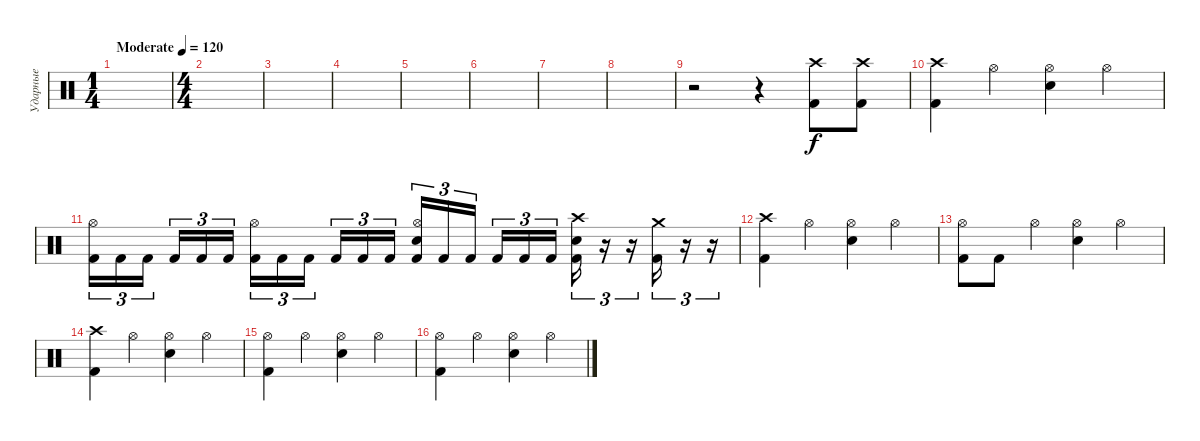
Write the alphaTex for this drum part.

\track ("Ударные" "Ударные") {instrument percussion}
\staff {score}
\articulation defaults
\ts (1 4)
\tempo (120 "Moderate")
\clef neutral
\ks c
|
\ts (4 4)
|
|
|
|
|
|
|
r.2 r.4 ("Crash high (hit)" "Kick (hit) 2").8 ("Crash high (hit)" "Kick (hit) 2").8 |
("Crash high (hit)" "Kick (hit) 2").4 "Hi-Hat (open)".4 ("Hi-Hat (open)" "Snare (hit) 2").4 "Hi-Hat (open)".4 |
("Hi-Hat (open)" "Kick (hit) 2").16{tu (3 2)} "Kick (hit) 2".16{tu (3 2)} "Kick (hit) 2".16{tu (3 2) beam splitsecondary} "Kick (hit) 2".16{tu (3 2)} "Kick (hit) 2".16{tu (3 2)} "Kick (hit) 2".16{tu (3 2)} ("Hi-Hat (open)" "Kick (hit) 2").16{tu (3 2)} "Kick (hit) 2".16{tu (3 2)} "Kick (hit) 2".16{tu (3 2) beam splitsecondary} "Kick (hit) 2".16{tu (3 2)} "Kick (hit) 2".16{tu (3 2)} "Kick (hit) 2".16{tu (3 2)} ("Hi-Hat (open)" "Snare (hit) 2" "Kick (hit) 2").16{tu (3 2)} "Kick (hit) 2".16{tu (3 2)} "Kick (hit) 2".16{tu (3 2) beam splitsecondary} "Kick (hit) 2".16{tu (3 2)} "Kick (hit) 2".16{tu (3 2)} "Kick (hit) 2".16{tu (3 2)} ("Crash high (hit)" "Snare (hit) 2" "Kick (hit) 2").16{tu (3 2)} r.16{tu (3 2)} r.16{tu (3 2)} ("Crash medium (hit)" "Kick (hit) 2").16{tu (3 2)} r.16{tu (3 2)} r.16{tu (3 2)} |
("Crash high (hit)" "Kick (hit) 2").4 "Hi-Hat (open)".4 ("Hi-Hat (open)" "Snare (hit) 2").4 "Hi-Hat (open)".4 |
("Hi-Hat (open)" "Kick (hit) 2").8 "Kick (hit) 2".8 "Hi-Hat (open)".4 ("Hi-Hat (open)" "Snare (hit) 2").4 "Hi-Hat (open)".4 |
("Crash high (hit)" "Kick (hit) 2").4 "Hi-Hat (open)".4 ("Hi-Hat (open)" "Snare (hit) 2").4 "Hi-Hat (open)".4 |
("Hi-Hat (open)" "Kick (hit) 2").4 "Hi-Hat (open)".4 ("Hi-Hat (open)" "Snare (hit) 2").4 "Hi-Hat (open)".4 |
("Hi-Hat (open)" "Kick (hit) 2").4 "Hi-Hat (open)".4 ("Hi-Hat (open)" "Snare (hit) 2").4 "Hi-Hat (open)".4
